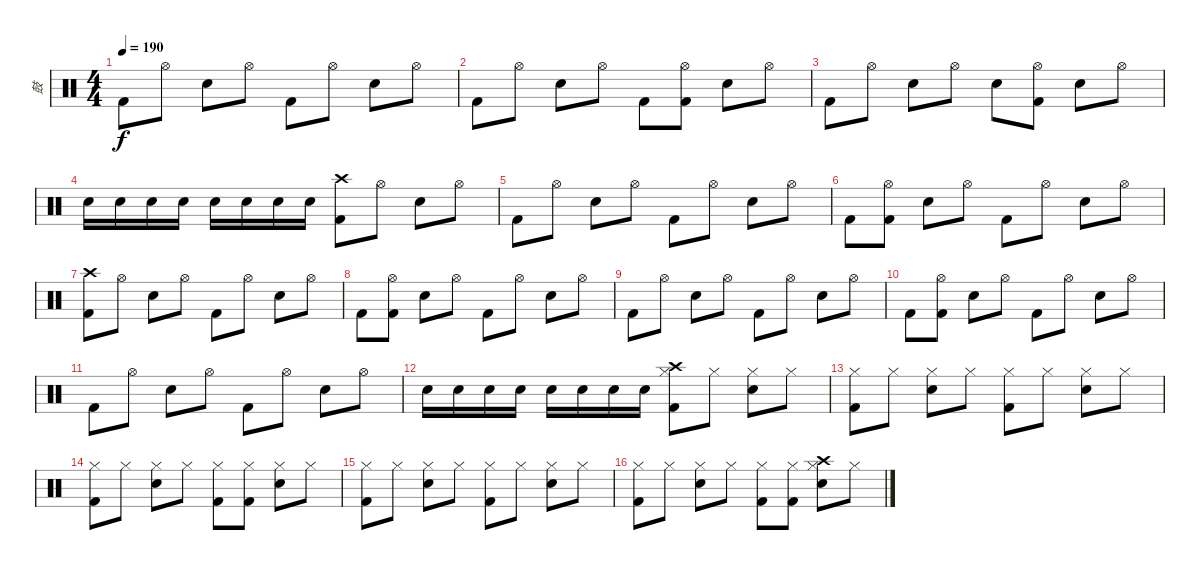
\track ("鼓" "鼓") {instrument percussion}
\staff {score}
\articulation defaults
\ts (4 4)
\tempo 190
\clef neutral
\ks c "Kick (hit) 2".8{dy f} "Hi-Hat (open)".8 "Snare (hit) 2".8 "Hi-Hat (open)".8 "Kick (hit) 2".8 "Hi-Hat (open)".8 "Snare (hit) 2".8 "Hi-Hat (open)".8
|
"Kick (hit) 2".8 "Hi-Hat (open)".8 "Snare (hit) 2".8 "Hi-Hat (open)".8 "Kick (hit) 2".8 ("Hi-Hat (open)" "Kick (hit) 2").8 "Snare (hit) 2".8 "Hi-Hat (open)".8 |
"Kick (hit) 2".8 "Hi-Hat (open)".8 "Snare (hit) 2".8 "Hi-Hat (open)".8 "Snare (hit) 2".8 ("Hi-Hat (open)" "Kick (hit) 2").8 "Snare (hit) 2".8 "Hi-Hat (open)".8 |
"Snare (hit) 2".16 "Snare (hit) 2".16 "Snare (hit) 2".16 "Snare (hit) 2".16 "Snare (hit) 2".16 "Snare (hit) 2".16 "Snare (hit) 2".16 "Snare (hit) 2".16 ("Crash high (hit)" "Kick (hit) 2").8 "Hi-Hat (open)".8 "Snare (hit) 2".8 "Hi-Hat (open)".8 |
"Kick (hit) 2".8 "Hi-Hat (open)".8 "Snare (hit) 2".8 "Hi-Hat (open)".8 "Kick (hit) 2".8 "Hi-Hat (open)".8 "Snare (hit) 2".8 "Hi-Hat (open)".8 |
"Kick (hit) 2".8 ("Hi-Hat (open)" "Kick (hit) 2").8 "Snare (hit) 2".8 "Hi-Hat (open)".8 "Kick (hit) 2".8 "Hi-Hat (open)".8 "Snare (hit) 2".8 "Hi-Hat (open)".8 |
("Crash high (hit)" "Kick (hit) 2").8 "Hi-Hat (open)".8 "Snare (hit) 2".8 "Hi-Hat (open)".8 "Kick (hit) 2".8 "Hi-Hat (open)".8 "Snare (hit) 2".8 "Hi-Hat (open)".8 |
"Kick (hit) 2".8 ("Hi-Hat (open)" "Kick (hit) 2").8 "Snare (hit) 2".8 "Hi-Hat (open)".8 "Kick (hit) 2".8 "Hi-Hat (open)".8 "Snare (hit) 2".8 "Hi-Hat (open)".8 |
"Kick (hit) 2".8 "Hi-Hat (open)".8 "Snare (hit) 2".8 "Hi-Hat (open)".8 "Kick (hit) 2".8 "Hi-Hat (open)".8 "Snare (hit) 2".8 "Hi-Hat (open)".8 |
"Kick (hit) 2".8 ("Hi-Hat (open)" "Kick (hit) 2").8 "Snare (hit) 2".8 "Hi-Hat (open)".8 "Kick (hit) 2".8 "Hi-Hat (open)".8 "Snare (hit) 2".8 "Hi-Hat (open)".8 |
"Kick (hit) 2".8 "Hi-Hat (open)".8 "Snare (hit) 2".8 "Hi-Hat (open)".8 "Kick (hit) 2".8 "Hi-Hat (open)".8 "Snare (hit) 2".8 "Hi-Hat (open)".8 |
"Snare (hit) 2".16 "Snare (hit) 2".16 "Snare (hit) 2".16 "Snare (hit) 2".16 "Snare (hit) 2".16 "Snare (hit) 2".16 "Snare (hit) 2".16 "Snare (hit) 2".16 ("Crash high (hit)" "Hi-Hat (closed)" "Kick (hit) 2").8 "Hi-Hat (closed)".8 ("Hi-Hat (closed)" "Snare (hit) 2").8 "Hi-Hat (closed)".8 |
("Hi-Hat (closed)" "Kick (hit) 2").8 "Hi-Hat (closed)".8 ("Hi-Hat (closed)" "Snare (hit) 2").8 "Hi-Hat (closed)".8 ("Hi-Hat (closed)" "Kick (hit) 2").8 "Hi-Hat (closed)".8 ("Hi-Hat (closed)" "Snare (hit) 2").8 "Hi-Hat (closed)".8 |
("Hi-Hat (closed)" "Kick (hit) 2").8 "Hi-Hat (closed)".8 ("Hi-Hat (closed)" "Snare (hit) 2").8 "Hi-Hat (closed)".8 ("Hi-Hat (closed)" "Kick (hit) 2").8 ("Hi-Hat (closed)" "Kick (hit) 2").8 ("Hi-Hat (closed)" "Snare (hit) 2").8 "Hi-Hat (closed)".8 |
("Hi-Hat (closed)" "Kick (hit) 2").8 "Hi-Hat (closed)".8 ("Hi-Hat (closed)" "Snare (hit) 2").8 "Hi-Hat (closed)".8 ("Hi-Hat (closed)" "Kick (hit) 2").8 "Hi-Hat (closed)".8 ("Hi-Hat (closed)" "Snare (hit) 2").8 "Hi-Hat (closed)".8 |
("Hi-Hat (closed)" "Kick (hit) 2").8 "Hi-Hat (closed)".8 ("Hi-Hat (closed)" "Snare (hit) 2").8 "Hi-Hat (closed)".8 ("Hi-Hat (closed)" "Kick (hit) 2").8 ("Hi-Hat (closed)" "Kick (hit) 2").8 ("Crash high (hit)" "Hi-Hat (closed)" "Snare (hit) 2").8 "Hi-Hat (closed)".8
